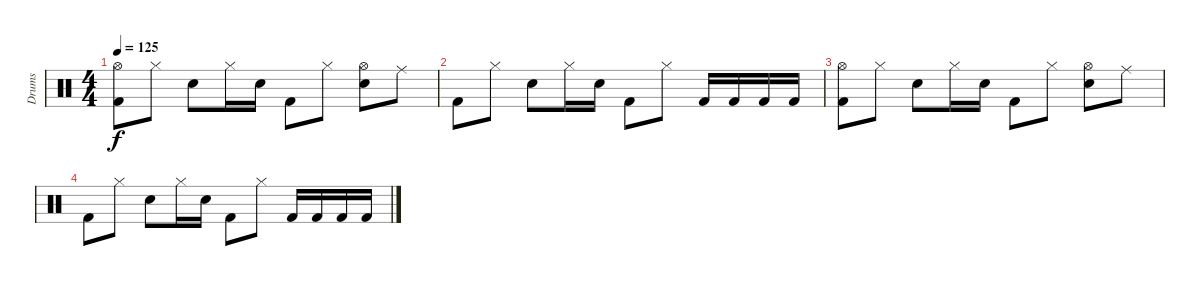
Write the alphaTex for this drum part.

\track ("Drums" "Drums") {instrument percussion}
\staff {score}
\articulation defaults
\ts (4 4)
\tempo 125
\clef neutral
\ks c
("Hi-Hat (open)" "Kick (hit) 2").8{dy f} "Hi-Hat (closed)".8 "Snare (hit) 2".8 "Hi-Hat (closed)".16 "Snare (hit) 2".16 "Kick (hit) 2".8 "Hi-Hat (closed)".8 ("Hi-Hat (open)" "Snare (hit) 2").8 "Ride (middle)".8 |
"Kick (hit) 2".8 "Hi-Hat (closed)".8 "Snare (hit) 2".8 "Hi-Hat (closed)".16 "Snare (hit) 2".16 "Kick (hit) 2".8 "Hi-Hat (closed)".8 "Kick (hit) 2".16 "Kick (hit) 2".16 "Kick (hit) 2".16 "Kick (hit) 2".16 |
("Hi-Hat (open)" "Kick (hit) 2").8 "Hi-Hat (closed)".8 "Snare (hit) 2".8 "Hi-Hat (closed)".16 "Snare (hit) 2".16 "Kick (hit) 2".8 "Hi-Hat (closed)".8 ("Hi-Hat (open)" "Snare (hit) 2").8 "Ride (middle)".8 |
"Kick (hit) 2".8 "Hi-Hat (closed)".8 "Snare (hit) 2".8 "Hi-Hat (closed)".16 "Snare (hit) 2".16 "Kick (hit) 2".8 "Hi-Hat (closed)".8 "Kick (hit) 2".16 "Kick (hit) 2".16 "Kick (hit) 2".16 "Kick (hit) 2".16
